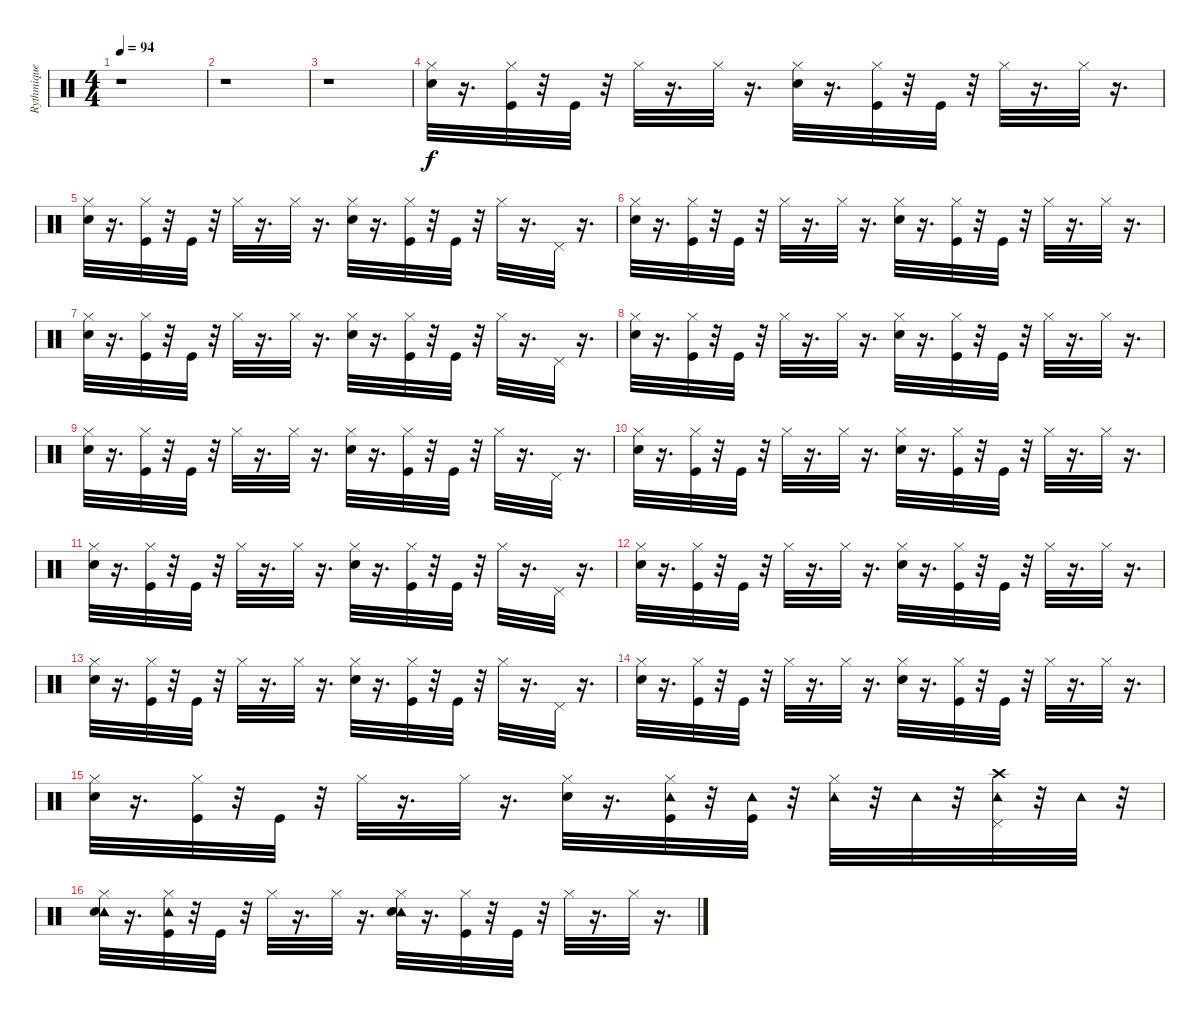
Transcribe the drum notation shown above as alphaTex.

\track ("Rythmique" "Rythmique") {instrument percussion}
\staff {score}
\articulation defaults
\ts (4 4)
\tempo 94
\clef neutral
\ks c
r.1{dy f} |
r.1 |
r.1 |
("Hi-Hat (closed)" "Electric Snare (hit)").32 r.16{d} ("Hi-Hat (closed)" "Kick (hit)").32 r.32 "Kick (hit)".32 r.32 "Hi-Hat (closed)".32 r.16{d} "Hi-Hat (closed)".32 r.16{d} ("Hi-Hat (closed)" "Electric Snare (hit)").32 r.16{d} ("Hi-Hat (closed)" "Kick (hit)").32 r.32 "Kick (hit)".32 r.32 "Hi-Hat (closed)".32 r.16{d} "Hi-Hat (closed)".32 r.16{d} |
("Hi-Hat (closed)" "Electric Snare (hit)").32 r.16{d} ("Hi-Hat (closed)" "Kick (hit)").32 r.32 "Kick (hit)".32 r.32 "Hi-Hat (closed)".32 r.16{d} "Hi-Hat (closed)".32 r.16{d} ("Hi-Hat (closed)" "Electric Snare (hit)").32 r.16{d} ("Hi-Hat (closed)" "Kick (hit)").32 r.32 "Kick (hit)".32 r.32 "Hi-Hat (closed)".32 r.16{d} "Pedal Hi-Hat (hit)".32 r.16{d} |
("Hi-Hat (closed)" "Electric Snare (hit)").32 r.16{d} ("Hi-Hat (closed)" "Kick (hit)").32 r.32 "Kick (hit)".32 r.32 "Hi-Hat (closed)".32 r.16{d} "Hi-Hat (closed)".32 r.16{d} ("Hi-Hat (closed)" "Electric Snare (hit)").32 r.16{d} ("Hi-Hat (closed)" "Kick (hit)").32 r.32 "Kick (hit)".32 r.32 "Hi-Hat (closed)".32 r.16{d} "Hi-Hat (closed)".32 r.16{d} |
("Hi-Hat (closed)" "Electric Snare (hit)").32 r.16{d} ("Hi-Hat (closed)" "Kick (hit)").32 r.32 "Kick (hit)".32 r.32 "Hi-Hat (closed)".32 r.16{d} "Hi-Hat (closed)".32 r.16{d} ("Hi-Hat (closed)" "Electric Snare (hit)").32 r.16{d} ("Hi-Hat (closed)" "Kick (hit)").32 r.32 "Kick (hit)".32 r.32 "Hi-Hat (closed)".32 r.16{d} "Pedal Hi-Hat (hit)".32 r.16{d} |
("Hi-Hat (closed)" "Electric Snare (hit)").32 r.16{d} ("Hi-Hat (closed)" "Kick (hit)").32 r.32 "Kick (hit)".32 r.32 "Hi-Hat (closed)".32 r.16{d} "Hi-Hat (closed)".32 r.16{d} ("Hi-Hat (closed)" "Electric Snare (hit)").32 r.16{d} ("Hi-Hat (closed)" "Kick (hit)").32 r.32 "Kick (hit)".32 r.32 "Hi-Hat (closed)".32 r.16{d} "Hi-Hat (closed)".32 r.16{d} |
("Hi-Hat (closed)" "Electric Snare (hit)").32 r.16{d} ("Hi-Hat (closed)" "Kick (hit)").32 r.32 "Kick (hit)".32 r.32 "Hi-Hat (closed)".32 r.16{d} "Hi-Hat (closed)".32 r.16{d} ("Hi-Hat (closed)" "Electric Snare (hit)").32 r.16{d} ("Hi-Hat (closed)" "Kick (hit)").32 r.32 "Kick (hit)".32 r.32 "Hi-Hat (closed)".32 r.16{d} "Pedal Hi-Hat (hit)".32 r.16{d} |
("Hi-Hat (closed)" "Electric Snare (hit)").32 r.16{d} ("Hi-Hat (closed)" "Kick (hit)").32 r.32 "Kick (hit)".32 r.32 "Hi-Hat (closed)".32 r.16{d} "Hi-Hat (closed)".32 r.16{d} ("Hi-Hat (closed)" "Electric Snare (hit)").32 r.16{d} ("Hi-Hat (closed)" "Kick (hit)").32 r.32 "Kick (hit)".32 r.32 "Hi-Hat (closed)".32 r.16{d} "Hi-Hat (closed)".32 r.16{d} |
("Hi-Hat (closed)" "Electric Snare (hit)").32 r.16{d} ("Hi-Hat (closed)" "Kick (hit)").32 r.32 "Kick (hit)".32 r.32 "Hi-Hat (closed)".32 r.16{d} "Hi-Hat (closed)".32 r.16{d} ("Hi-Hat (closed)" "Electric Snare (hit)").32 r.16{d} ("Hi-Hat (closed)" "Kick (hit)").32 r.32 "Kick (hit)".32 r.32 "Hi-Hat (closed)".32 r.16{d} "Pedal Hi-Hat (hit)".32 r.16{d} |
("Hi-Hat (closed)" "Electric Snare (hit)").32 r.16{d} ("Hi-Hat (closed)" "Kick (hit)").32 r.32 "Kick (hit)".32 r.32 "Hi-Hat (closed)".32 r.16{d} "Hi-Hat (closed)".32 r.16{d} ("Hi-Hat (closed)" "Electric Snare (hit)").32 r.16{d} ("Hi-Hat (closed)" "Kick (hit)").32 r.32 "Kick (hit)".32 r.32 "Hi-Hat (closed)".32 r.16{d} "Hi-Hat (closed)".32 r.16{d} |
("Hi-Hat (closed)" "Electric Snare (hit)").32 r.16{d} ("Hi-Hat (closed)" "Kick (hit)").32 r.32 "Kick (hit)".32 r.32 "Hi-Hat (closed)".32 r.16{d} "Hi-Hat (closed)".32 r.16{d} ("Hi-Hat (closed)" "Electric Snare (hit)").32 r.16{d} ("Hi-Hat (closed)" "Kick (hit)").32 r.32 "Kick (hit)".32 r.32 "Hi-Hat (closed)".32 r.16{d} "Pedal Hi-Hat (hit)".32 r.16{d} |
("Hi-Hat (closed)" "Electric Snare (hit)").32 r.16{d} ("Hi-Hat (closed)" "Kick (hit)").32 r.32 "Kick (hit)".32 r.32 "Hi-Hat (closed)".32 r.16{d} "Hi-Hat (closed)".32 r.16{d} ("Hi-Hat (closed)" "Electric Snare (hit)").32 r.16{d} ("Hi-Hat (closed)" "Kick (hit)").32 r.32 "Kick (hit)".32 r.32 "Hi-Hat (closed)".32 r.16{d} "Hi-Hat (closed)".32 r.16{d} |
("Hi-Hat (closed)" "Electric Snare (hit)").32 r.16{d} ("Hi-Hat (closed)" "Kick (hit)").32 r.32 "Kick (hit)".32 r.32 "Hi-Hat (closed)".32 r.16{d} "Hi-Hat (closed)".32 r.16{d} ("Hi-Hat (closed)" "Electric Snare (hit)").32 r.16{d} ("Tambourine (hit)" "Hi-Hat (closed)" "Kick (hit)").32 r.32 ("Tambourine (hit)" "Kick (hit)").32 r.32 ("Tambourine (hit)" "Hi-Hat (closed)").32 r.32 "Tambourine (hit)".32 r.32 ("Tambourine (hit)" "Crash high (hit)" "Pedal Hi-Hat (hit)").32 r.32 "Tambourine (hit)".32 r.32 |
("Tambourine (hit)" "Hi-Hat (closed)" "Electric Snare (hit)").32 r.16{d} ("Tambourine (hit)" "Hi-Hat (closed)" "Kick (hit)").32 r.32 "Kick (hit)".32 r.32 "Hi-Hat (closed)".32 r.16{d} "Hi-Hat (closed)".32 r.16{d} ("Tambourine (hit)" "Hi-Hat (closed)" "Electric Snare (hit)").32 r.16{d} ("Hi-Hat (closed)" "Kick (hit)").32 r.32 "Kick (hit)".32 r.32 "Hi-Hat (closed)".32 r.16{d} "Hi-Hat (closed)".32 r.16{d}
